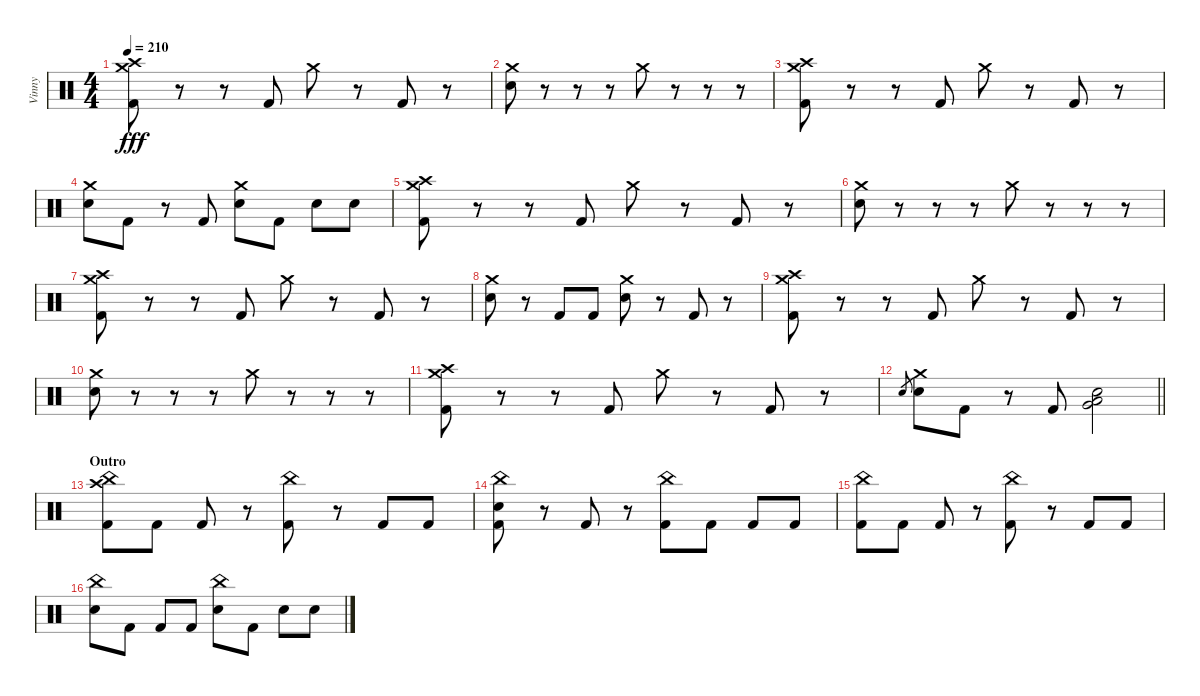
\track ("Vinny" "Vinny") {instrument percussion}
\staff {score}
\articulation defaults
\ts (4 4)
\tempo 210
\clef neutral
\ks c
("Crash high (hit)" "Crash medium (hit)" "Kick (hit) 2").8{dy fff} r.8 r.8 "Kick (hit) 2".8 "Crash medium (hit)".8 r.8 "Kick (hit) 2".8 r.8 |
("Crash medium (hit)" "Electric Snare (hit)").8 r.8 r.8 r.8 "Crash medium (hit)".8 r.8 r.8 r.8 |
("Crash high (hit)" "Crash medium (hit)" "Kick (hit) 2").8 r.8 r.8 "Kick (hit) 2".8 "Crash medium (hit)".8 r.8 "Kick (hit) 2".8 r.8 |
("Crash medium (hit)" "Electric Snare (hit)").8 "Kick (hit) 2".8 r.8 "Kick (hit) 2".8 ("Crash medium (hit)" "Electric Snare (hit)").8 "Kick (hit) 2".8 "Electric Snare (hit)".8 "Electric Snare (hit)".8 |
("Crash high (hit)" "Crash medium (hit)" "Kick (hit) 2").8 r.8 r.8 "Kick (hit) 2".8 "Crash medium (hit)".8 r.8 "Kick (hit) 2".8 r.8 |
("Crash medium (hit)" "Electric Snare (hit)").8 r.8 r.8 r.8 "Crash medium (hit)".8 r.8 r.8 r.8 |
("Crash high (hit)" "Crash medium (hit)" "Kick (hit) 2").8 r.8 r.8 "Kick (hit) 2".8 "Crash medium (hit)".8 r.8 "Kick (hit) 2".8 r.8 |
("Crash medium (hit)" "Electric Snare (hit)").8 r.8 "Kick (hit) 2".8 "Kick (hit) 2".8 ("Crash medium (hit)" "Electric Snare (hit)").8 r.8 "Kick (hit) 2".8 r.8 |
("Crash high (hit)" "Crash medium (hit)" "Kick (hit) 2").8 r.8 r.8 "Kick (hit) 2".8 "Crash medium (hit)".8 r.8 "Kick (hit) 2".8 r.8 |
("Crash medium (hit)" "Electric Snare (hit)").8 r.8 r.8 r.8 "Crash medium (hit)".8 r.8 r.8 r.8 |
("Crash high (hit)" "Crash medium (hit)" "Kick (hit) 2").8 r.8 r.8 "Kick (hit) 2".8 "Crash medium (hit)".8 r.8 "Kick (hit) 2".8 r.8 |
\barLineRight lightlight "Electric Snare (hit)".8{gr}
("Crash medium (hit)" "Electric Snare (hit)").8 "Kick (hit) 2".8 r.8 "Kick (hit) 2".8 ("Electric Snare (hit)" "Very Low Tom (hit)" "Low Floor Tom (hit)").2 |
\section ("" "Outro")
("Crash high (hit)" "China (hit)" "Kick (hit) 2").8 "Kick (hit) 2".8 "Kick (hit) 2".8 r.8 ("China (hit)" "Kick (hit) 2").8 r.8 "Kick (hit) 2".8 "Kick (hit) 2".8 |
("China (hit)" "Electric Snare (hit)" "Kick (hit) 2").8 r.8 "Kick (hit) 2".8 r.8 ("China (hit)" "Kick (hit) 2").8 "Kick (hit) 2".8 "Kick (hit) 2".8 "Kick (hit) 2".8 |
("China (hit)" "Kick (hit) 2").8 "Kick (hit) 2".8 "Kick (hit) 2".8 r.8 ("China (hit)" "Kick (hit) 2").8 r.8 "Kick (hit) 2".8 "Kick (hit) 2".8 |
("China (hit)" "Electric Snare (hit)").8 "Kick (hit) 2".8 "Kick (hit) 2".8 "Kick (hit) 2".8 ("China (hit)" "Electric Snare (hit)").8 "Kick (hit) 2".8 "Electric Snare (hit)".8 "Electric Snare (hit)".8
